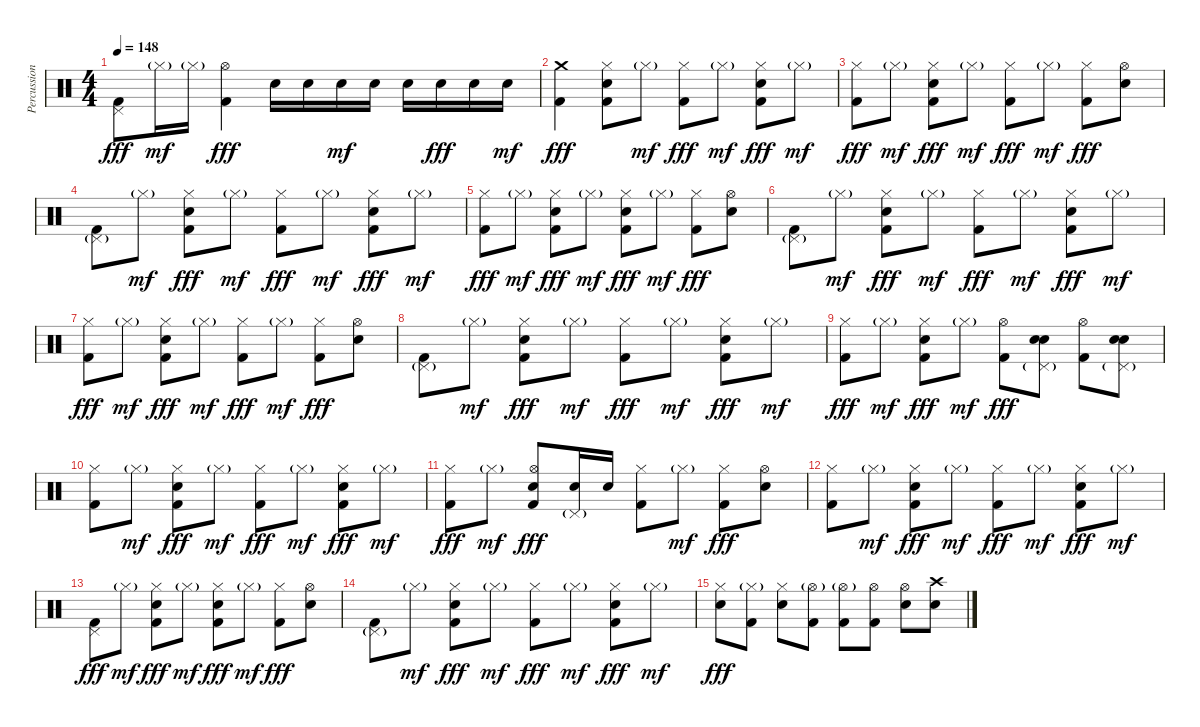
\track ("Percussion" "Percussion") {instrument percussion}
\staff {score}
\articulation defaults
\ts (4 4)
\tempo 148
\clef neutral
\ks c
("Pedal Hi-Hat (hit)" "Kick (hit) 2").8{dy fff} "Hi-Hat (closed)"{g}.16{dy mf} "Hi-Hat (closed)"{g}.16 ("Hi-Hat (open)" "Kick (hit) 2").4{dy fff} "Electric Snare (hit)".16 "Electric Snare (hit)".16 "Electric Snare (hit)".16{dy mf} "Electric Snare (hit)".16 "Electric Snare (hit)".16 "Electric Snare (hit)".16{dy fff} "Electric Snare (hit)".16 "Electric Snare (hit)".16{dy mf} |
("Crash medium (hit)" "Kick (hit) 2").4{dy fff} ("Hi-Hat (closed)" "Kick (hit) 2" "Electric Snare (hit)").8 "Hi-Hat (closed)"{g}.8{dy mf} ("Hi-Hat (closed)" "Kick (hit) 2").8{dy fff} "Hi-Hat (closed)"{g}.8{dy mf} ("Hi-Hat (closed)" "Kick (hit) 2" "Electric Snare (hit)").8{dy fff} "Hi-Hat (closed)"{g}.8{dy mf} |
("Hi-Hat (closed)" "Kick (hit) 2").8{dy fff} "Hi-Hat (closed)"{g}.8{dy mf} ("Hi-Hat (closed)" "Kick (hit) 2" "Electric Snare (hit)").8{dy fff} "Hi-Hat (closed)"{g}.8{dy mf} ("Hi-Hat (closed)" "Kick (hit) 2").8{dy fff} "Hi-Hat (closed)"{g}.8{dy mf} ("Hi-Hat (closed)" "Kick (hit) 2").8{dy fff} ("Hi-Hat (open)" "Electric Snare (hit)").8 |
("Pedal Hi-Hat (hit)"{g} "Kick (hit) 2").8 "Hi-Hat (closed)"{g}.8{dy mf} ("Hi-Hat (closed)" "Kick (hit) 2" "Electric Snare (hit)").8{dy fff} "Hi-Hat (closed)"{g}.8{dy mf} ("Hi-Hat (closed)" "Kick (hit) 2").8{dy fff} "Hi-Hat (closed)"{g}.8{dy mf} ("Hi-Hat (closed)" "Kick (hit) 2" "Electric Snare (hit)").8{dy fff} "Hi-Hat (closed)"{g}.8{dy mf} |
("Hi-Hat (closed)" "Kick (hit) 2").8{dy fff} "Hi-Hat (closed)"{g}.8{dy mf} ("Hi-Hat (closed)" "Kick (hit) 2" "Electric Snare (hit)").8{dy fff} "Hi-Hat (closed)"{g}.8{dy mf} ("Hi-Hat (closed)" "Kick (hit) 2" "Electric Snare (hit)").8{dy fff} "Hi-Hat (closed)"{g}.8{dy mf} ("Hi-Hat (closed)" "Kick (hit) 2").8{dy fff} ("Hi-Hat (open)" "Electric Snare (hit)").8 |
("Pedal Hi-Hat (hit)"{g} "Kick (hit) 2").8 "Hi-Hat (closed)"{g}.8{dy mf} ("Hi-Hat (closed)" "Kick (hit) 2" "Electric Snare (hit)").8{dy fff} "Hi-Hat (closed)"{g}.8{dy mf} ("Hi-Hat (closed)" "Kick (hit) 2").8{dy fff} "Hi-Hat (closed)"{g}.8{dy mf} ("Hi-Hat (closed)" "Kick (hit) 2" "Electric Snare (hit)").8{dy fff} "Hi-Hat (closed)"{g}.8{dy mf} |
("Hi-Hat (closed)" "Kick (hit) 2").8{dy fff} "Hi-Hat (closed)"{g}.8{dy mf} ("Hi-Hat (closed)" "Kick (hit) 2" "Electric Snare (hit)").8{dy fff} "Hi-Hat (closed)"{g}.8{dy mf} ("Hi-Hat (closed)" "Kick (hit) 2").8{dy fff} "Hi-Hat (closed)"{g}.8{dy mf} ("Hi-Hat (closed)" "Kick (hit) 2").8{dy fff} ("Hi-Hat (open)" "Electric Snare (hit)").8 |
("Pedal Hi-Hat (hit)"{g} "Kick (hit) 2").8 "Hi-Hat (closed)"{g}.8{dy mf} ("Hi-Hat (closed)" "Kick (hit) 2" "Electric Snare (hit)").8{dy fff} "Hi-Hat (closed)"{g}.8{dy mf} ("Hi-Hat (closed)" "Kick (hit) 2").8{dy fff} "Hi-Hat (closed)"{g}.8{dy mf} ("Hi-Hat (closed)" "Kick (hit) 2" "Electric Snare (hit)").8{dy fff} "Hi-Hat (closed)"{g}.8{dy mf} |
("Hi-Hat (closed)" "Kick (hit) 2").8{dy fff} "Hi-Hat (closed)"{g}.8{dy mf} ("Hi-Hat (closed)" "Kick (hit) 2" "Electric Snare (hit)").8{dy fff} "Hi-Hat (closed)"{g}.8{dy mf} ("Hi-Hat (open)" "Kick (hit) 2").8{dy fff} ("Pedal Hi-Hat (hit)"{g} "Electric Snare (hit)" "Electric Snare (hit)").8{bd 240} ("Hi-Hat (open)" "Kick (hit) 2").8 ("Pedal Hi-Hat (hit)"{g} "Electric Snare (hit)" "Electric Snare (hit)").8{bd 240} |
("Hi-Hat (closed)" "Kick (hit) 2").8 "Hi-Hat (closed)"{g}.8{dy mf} ("Hi-Hat (closed)" "Kick (hit) 2" "Electric Snare (hit)").8{dy fff} "Hi-Hat (closed)"{g}.8{dy mf} ("Hi-Hat (closed)" "Kick (hit) 2").8{dy fff} "Hi-Hat (closed)"{g}.8{dy mf} ("Hi-Hat (closed)" "Kick (hit) 2" "Electric Snare (hit)").8{dy fff} "Hi-Hat (closed)"{g}.8{dy mf} |
("Hi-Hat (closed)" "Kick (hit) 2").8{dy fff} "Hi-Hat (closed)"{g}.8{dy mf} ("Hi-Hat (open)" "Kick (hit) 2" "Electric Snare (hit)").8{dy fff} ("Pedal Hi-Hat (hit)"{g} "Electric Snare (hit)").16 "Electric Snare (hit)".16 ("Hi-Hat (closed)" "Kick (hit) 2").8 "Hi-Hat (closed)"{g}.8{dy mf} ("Hi-Hat (closed)" "Kick (hit) 2").8{dy fff} ("Hi-Hat (open)" "Electric Snare (hit)").8 |
("Hi-Hat (closed)" "Kick (hit) 2").8 "Hi-Hat (closed)"{g}.8{dy mf} ("Hi-Hat (closed)" "Kick (hit) 2" "Electric Snare (hit)").8{dy fff} "Hi-Hat (closed)"{g}.8{dy mf} ("Hi-Hat (closed)" "Kick (hit) 2").8{dy fff} "Hi-Hat (closed)"{g}.8{dy mf} ("Hi-Hat (closed)" "Kick (hit) 2" "Electric Snare (hit)").8{dy fff} "Hi-Hat (closed)"{g}.8{dy mf} |
("Pedal Hi-Hat (hit)" "Kick (hit) 2").8{dy fff} "Hi-Hat (closed)"{g}.8{dy mf} ("Hi-Hat (closed)" "Kick (hit) 2" "Electric Snare (hit)").8{dy fff} "Hi-Hat (closed)"{g}.8{dy mf} ("Hi-Hat (closed)" "Kick (hit) 2" "Electric Snare (hit)").8{dy fff} "Hi-Hat (closed)"{g}.8{dy mf} ("Hi-Hat (closed)" "Kick (hit) 2").8{dy fff} ("Hi-Hat (open)" "Electric Snare (hit)").8 |
("Pedal Hi-Hat (hit)"{g} "Kick (hit) 2").8 "Hi-Hat (closed)"{g}.8{dy mf} ("Hi-Hat (closed)" "Kick (hit) 2" "Electric Snare (hit)").8{dy fff} "Hi-Hat (closed)"{g}.8{dy mf} ("Hi-Hat (closed)" "Kick (hit) 2").8{dy fff} "Hi-Hat (closed)"{g}.8{dy mf} ("Hi-Hat (closed)" "Kick (hit) 2" "Electric Snare (hit)").8{dy fff} "Hi-Hat (closed)"{g}.8{dy mf} |
("Hi-Hat (closed)" "Electric Snare (hit)").8{dy fff} ("Hi-Hat (closed)"{g} "Kick (hit) 2").8 ("Hi-Hat (closed)" "Electric Snare (hit)").8 ("Hi-Hat (open)"{g} "Kick (hit) 2").8 ("Hi-Hat (open)"{g} "Kick (hit) 2").8 ("Hi-Hat (open)" "Kick (hit) 2").8 ("Hi-Hat (open)" "Electric Snare (hit)").8 ("Crash high (hit)" "Electric Snare (hit)").8
